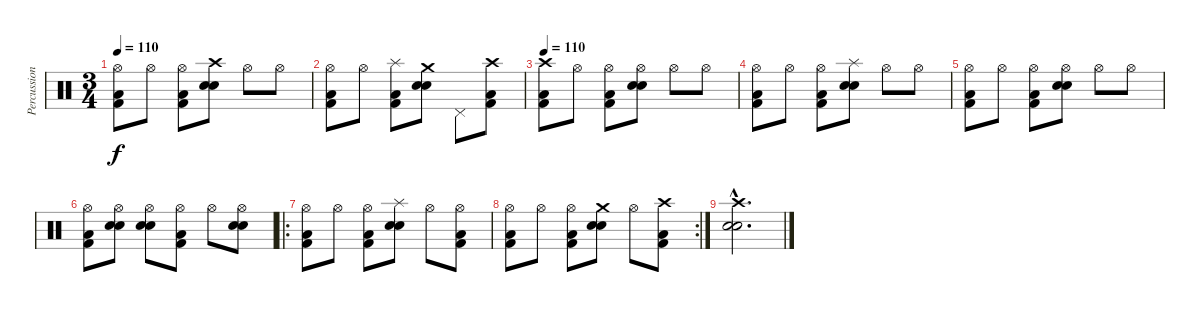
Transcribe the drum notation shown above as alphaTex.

\track ("Percussions" "Percussion") {instrument percussion}
\staff {score}
\articulation defaults
\ts (3 4)
\tempo 110
\clef neutral
\ks c
("Hi-Hat (open)" "Kick (hit) 2" "Low Floor Tom (hit)").8{dy f} "Hi-Hat (open)".8 ("Hi-Hat (open)" "Kick (hit) 2" "Low Floor Tom (hit)").8 ("Crash high (hit)" "Snare (hit) 2" "Electric Snare (hit)").8 "Hi-Hat (open)".8 "Hi-Hat (open)".8 |
("Hi-Hat (open)" "Kick (hit) 2" "Low Floor Tom (hit)").8 "Hi-Hat (open)".8 ("Splash (hit)" "Kick (hit) 2" "Low Floor Tom (hit)").8 ("Crash medium (hit)" "Snare (hit) 2" "Electric Snare (hit)").8 "Pedal Hi-Hat (hit)".8 ("Crash high (hit)" "Kick (hit) 2" "Low Floor Tom (hit)").8 |
\tempo 110
("Crash high (hit)" "Kick (hit) 2" "Low Floor Tom (hit)").8 "Hi-Hat (open)".8 ("Hi-Hat (open)" "Kick (hit) 2" "Low Floor Tom (hit)").8 ("Hi-Hat (open)" "Snare (hit) 2" "Electric Snare (hit)").8 "Hi-Hat (open)".8 "Hi-Hat (open)".8 |
("Hi-Hat (open)" "Kick (hit) 2" "Low Floor Tom (hit)").8 "Hi-Hat (open)".8 ("Hi-Hat (open)" "Kick (hit) 2" "Low Floor Tom (hit)").8 ("Splash (hit)" "Snare (hit) 2" "Electric Snare (hit)").8 "Hi-Hat (open)".8 "Hi-Hat (open)".8 |
("Hi-Hat (open)" "Kick (hit) 2" "Low Floor Tom (hit)").8 "Hi-Hat (open)".8 ("Hi-Hat (open)" "Kick (hit) 2" "Low Floor Tom (hit)").8 ("Hi-Hat (open)" "Snare (hit) 2" "Electric Snare (hit)").8 "Hi-Hat (open)".8 "Hi-Hat (open)".8 |
("Hi-Hat (open)" "Kick (hit) 2" "Low Floor Tom (hit)").8 ("Hi-Hat (open)" "Snare (hit) 2" "Electric Snare (hit)").8 ("Hi-Hat (open)" "Snare (hit) 2" "Electric Snare (hit)").8 ("Hi-Hat (open)" "Kick (hit) 2" "Low Floor Tom (hit)").8 "Hi-Hat (open)".8 ("Hi-Hat (open)" "Snare (hit) 2" "Electric Snare (hit)").8 |
\ro
("Hi-Hat (open)" "Kick (hit) 2" "Low Floor Tom (hit)").8 "Hi-Hat (open)".8 ("Hi-Hat (open)" "Kick (hit) 2" "Low Floor Tom (hit)").8 ("Splash (hit)" "Snare (hit) 2" "Electric Snare (hit)").8 "Hi-Hat (open)".8 ("Hi-Hat (open)" "Kick (hit) 2" "Low Floor Tom (hit)").8 |
\rc 2
("Hi-Hat (open)" "Kick (hit) 2" "Low Floor Tom (hit)").8 "Hi-Hat (open)".8 ("Hi-Hat (open)" "Kick (hit) 2" "Low Floor Tom (hit)").8 ("Crash medium (hit)" "Snare (hit) 2" "Electric Snare (hit)").8 "Hi-Hat (open)".8 ("Crash high (hit)" "Kick (hit) 2" "Low Floor Tom (hit)").8 |
("Crash high (hit)"{hac} "Snare (hit) 2"{hac} "Electric Snare (hit)"{hac}).2{d}
